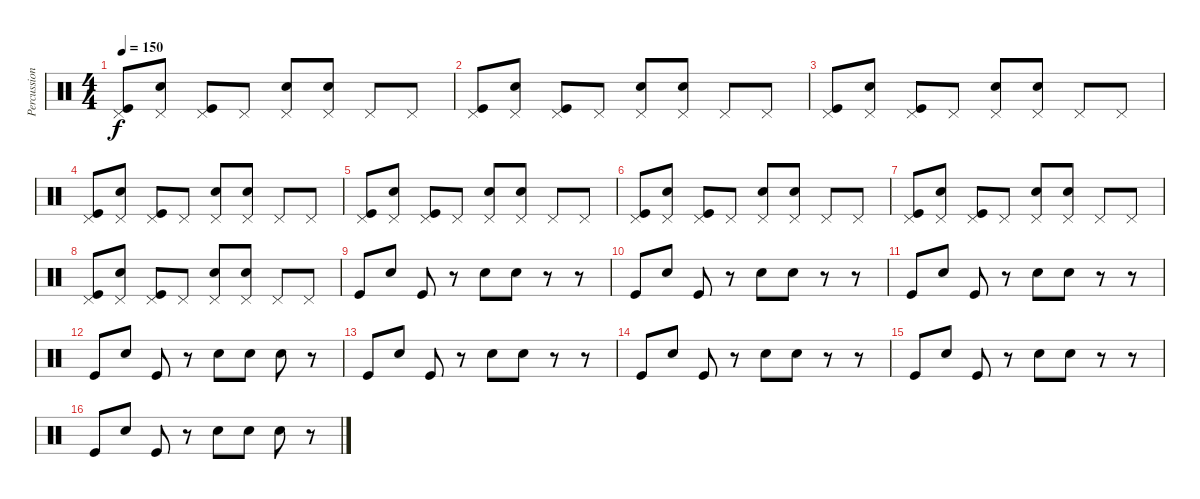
\track ("Percussion" "Percussion") {instrument percussion}
\staff {score}
\articulation defaults
\ts (4 4)
\tempo 150
\clef neutral
\ks c
("Kick (hit)" "Pedal Hi-Hat (hit)").8{dy f} ("Electric Snare (hit)" "Pedal Hi-Hat (hit)").8 ("Kick (hit)" "Pedal Hi-Hat (hit)").8 "Pedal Hi-Hat (hit)".8 ("Electric Snare (hit)" "Pedal Hi-Hat (hit)").8 ("Electric Snare (hit)" "Pedal Hi-Hat (hit)").8 "Pedal Hi-Hat (hit)".8 "Pedal Hi-Hat (hit)".8 |
("Kick (hit)" "Pedal Hi-Hat (hit)").8 ("Electric Snare (hit)" "Pedal Hi-Hat (hit)").8 ("Kick (hit)" "Pedal Hi-Hat (hit)").8 "Pedal Hi-Hat (hit)".8 ("Electric Snare (hit)" "Pedal Hi-Hat (hit)").8 ("Electric Snare (hit)" "Pedal Hi-Hat (hit)").8 "Pedal Hi-Hat (hit)".8 "Pedal Hi-Hat (hit)".8 |
("Kick (hit)" "Pedal Hi-Hat (hit)").8 ("Electric Snare (hit)" "Pedal Hi-Hat (hit)").8 ("Kick (hit)" "Pedal Hi-Hat (hit)").8 "Pedal Hi-Hat (hit)".8 ("Electric Snare (hit)" "Pedal Hi-Hat (hit)").8 ("Electric Snare (hit)" "Pedal Hi-Hat (hit)").8 "Pedal Hi-Hat (hit)".8 "Pedal Hi-Hat (hit)".8 |
("Kick (hit)" "Pedal Hi-Hat (hit)").8 ("Electric Snare (hit)" "Pedal Hi-Hat (hit)").8 ("Kick (hit)" "Pedal Hi-Hat (hit)").8 "Pedal Hi-Hat (hit)".8 ("Electric Snare (hit)" "Pedal Hi-Hat (hit)").8 ("Electric Snare (hit)" "Pedal Hi-Hat (hit)").8 "Pedal Hi-Hat (hit)".8 "Pedal Hi-Hat (hit)".8 |
("Kick (hit)" "Pedal Hi-Hat (hit)").8 ("Electric Snare (hit)" "Pedal Hi-Hat (hit)").8 ("Kick (hit)" "Pedal Hi-Hat (hit)").8 "Pedal Hi-Hat (hit)".8 ("Electric Snare (hit)" "Pedal Hi-Hat (hit)").8 ("Electric Snare (hit)" "Pedal Hi-Hat (hit)").8 "Pedal Hi-Hat (hit)".8 "Pedal Hi-Hat (hit)".8 |
("Kick (hit)" "Pedal Hi-Hat (hit)").8 ("Electric Snare (hit)" "Pedal Hi-Hat (hit)").8 ("Kick (hit)" "Pedal Hi-Hat (hit)").8 "Pedal Hi-Hat (hit)".8 ("Electric Snare (hit)" "Pedal Hi-Hat (hit)").8 ("Electric Snare (hit)" "Pedal Hi-Hat (hit)").8 "Pedal Hi-Hat (hit)".8 "Pedal Hi-Hat (hit)".8 |
("Kick (hit)" "Pedal Hi-Hat (hit)").8 ("Electric Snare (hit)" "Pedal Hi-Hat (hit)").8 ("Kick (hit)" "Pedal Hi-Hat (hit)").8 "Pedal Hi-Hat (hit)".8 ("Electric Snare (hit)" "Pedal Hi-Hat (hit)").8 ("Electric Snare (hit)" "Pedal Hi-Hat (hit)").8 "Pedal Hi-Hat (hit)".8 "Pedal Hi-Hat (hit)".8 |
("Kick (hit)" "Pedal Hi-Hat (hit)").8 ("Electric Snare (hit)" "Pedal Hi-Hat (hit)").8 ("Kick (hit)" "Pedal Hi-Hat (hit)").8 "Pedal Hi-Hat (hit)".8 ("Electric Snare (hit)" "Pedal Hi-Hat (hit)").8 ("Electric Snare (hit)" "Pedal Hi-Hat (hit)").8 "Pedal Hi-Hat (hit)".8 "Pedal Hi-Hat (hit)".8 |
"Kick (hit)".8 "Electric Snare (hit)".8 "Kick (hit)".8 r.8 "Electric Snare (hit)".8 "Electric Snare (hit)".8 r.8 r.8 |
"Kick (hit)".8 "Electric Snare (hit)".8 "Kick (hit)".8 r.8 "Electric Snare (hit)".8 "Electric Snare (hit)".8 r.8 r.8 |
"Kick (hit)".8 "Electric Snare (hit)".8 "Kick (hit)".8 r.8 "Electric Snare (hit)".8 "Electric Snare (hit)".8 r.8 r.8 |
"Kick (hit)".8 "Electric Snare (hit)".8 "Kick (hit)".8 r.8 "Electric Snare (hit)".8 "Electric Snare (hit)".8 "Electric Snare (hit)".8 r.8 |
"Kick (hit)".8 "Electric Snare (hit)".8 "Kick (hit)".8 r.8 "Electric Snare (hit)".8 "Electric Snare (hit)".8 r.8 r.8 |
"Kick (hit)".8 "Electric Snare (hit)".8 "Kick (hit)".8 r.8 "Electric Snare (hit)".8 "Electric Snare (hit)".8 r.8 r.8 |
"Kick (hit)".8 "Electric Snare (hit)".8 "Kick (hit)".8 r.8 "Electric Snare (hit)".8 "Electric Snare (hit)".8 r.8 r.8 |
"Kick (hit)".8 "Electric Snare (hit)".8 "Kick (hit)".8 r.8 "Electric Snare (hit)".8 "Electric Snare (hit)".8 "Electric Snare (hit)".8 r.8
